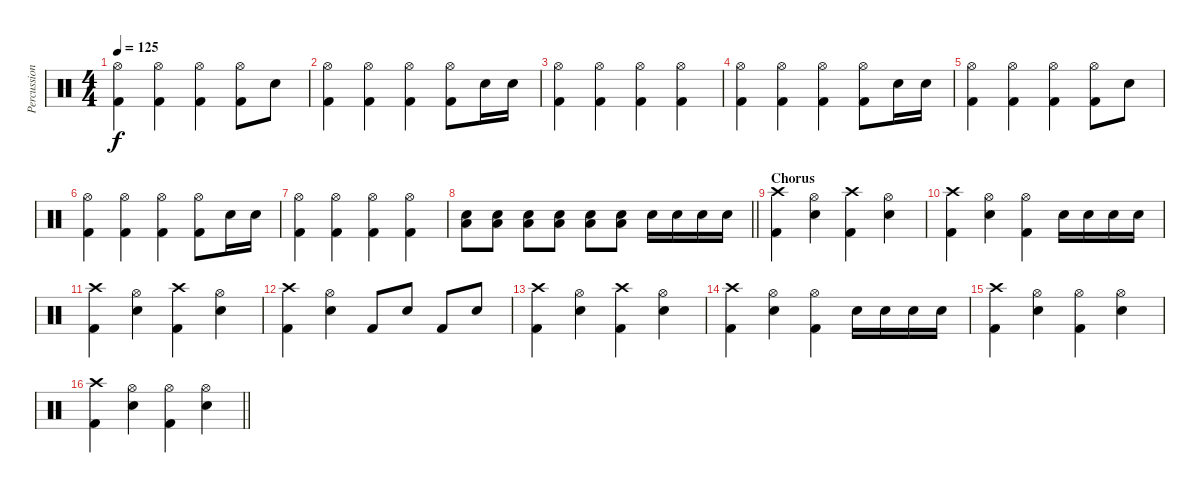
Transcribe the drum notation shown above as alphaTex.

\track ("Percussion" "Percussion") {instrument percussion}
\staff {score}
\articulation defaults
\ts (4 4)
\tempo 125
\clef neutral
\ks c
("Hi-Hat (open)" "Kick (hit) 2").4{dy f} ("Hi-Hat (open)" "Kick (hit) 2").4 ("Hi-Hat (open)" "Kick (hit) 2").4 ("Hi-Hat (open)" "Kick (hit) 2").8 "Snare (hit) 2".8 |
("Hi-Hat (open)" "Kick (hit) 2").4 ("Hi-Hat (open)" "Kick (hit) 2").4 ("Hi-Hat (open)" "Kick (hit) 2").4 ("Hi-Hat (open)" "Kick (hit) 2").8 "Snare (hit) 2".16 "Snare (hit) 2".16 |
("Hi-Hat (open)" "Kick (hit) 2").4 ("Hi-Hat (open)" "Kick (hit) 2").4 ("Hi-Hat (open)" "Kick (hit) 2").4 ("Hi-Hat (open)" "Kick (hit) 2").4 |
("Hi-Hat (open)" "Kick (hit) 2").4 ("Hi-Hat (open)" "Kick (hit) 2").4 ("Hi-Hat (open)" "Kick (hit) 2").4 ("Hi-Hat (open)" "Kick (hit) 2").8 "Snare (hit) 2".16 "Snare (hit) 2".16 |
("Hi-Hat (open)" "Kick (hit) 2").4 ("Hi-Hat (open)" "Kick (hit) 2").4 ("Hi-Hat (open)" "Kick (hit) 2").4 ("Hi-Hat (open)" "Kick (hit) 2").8 "Snare (hit) 2".8 |
("Hi-Hat (open)" "Kick (hit) 2").4 ("Hi-Hat (open)" "Kick (hit) 2").4 ("Hi-Hat (open)" "Kick (hit) 2").4 ("Hi-Hat (open)" "Kick (hit) 2").8 "Snare (hit) 2".16 "Snare (hit) 2".16 |
("Hi-Hat (open)" "Kick (hit) 2").4 ("Hi-Hat (open)" "Kick (hit) 2").4 ("Hi-Hat (open)" "Kick (hit) 2").4 ("Hi-Hat (open)" "Kick (hit) 2").4 |
\barLineRight lightlight
("Snare (hit) 2" "Low Floor Tom (hit)").8 ("Snare (hit) 2" "Low Floor Tom (hit)").8 ("Snare (hit) 2" "Low Floor Tom (hit)").8 ("Snare (hit) 2" "Low Floor Tom (hit)").8 ("Snare (hit) 2" "Low Floor Tom (hit)").8 ("Snare (hit) 2" "Low Floor Tom (hit)").8 "Snare (hit) 2".16 "Snare (hit) 2".16 "Snare (hit) 2".16 "Snare (hit) 2".16 |
\section ("" "Chorus")
("Crash high (hit)" "Kick (hit) 2").4 ("Hi-Hat (open)" "Snare (hit) 2").4 ("Crash high (hit)" "Kick (hit) 2").4 ("Hi-Hat (open)" "Snare (hit) 2").4 |
("Crash high (hit)" "Kick (hit) 2").4 ("Hi-Hat (open)" "Snare (hit) 2").4 ("Hi-Hat (open)" "Kick (hit) 2").4 "Snare (hit) 2".16 "Snare (hit) 2".16 "Snare (hit) 2".16 "Snare (hit) 2".16 |
("Crash high (hit)" "Kick (hit) 2").4 ("Hi-Hat (open)" "Snare (hit) 2").4 ("Crash high (hit)" "Kick (hit) 2").4 ("Hi-Hat (open)" "Snare (hit) 2").4 |
("Crash high (hit)" "Kick (hit) 2").4 ("Hi-Hat (open)" "Snare (hit) 2").4 "Kick (hit) 2".8 "Snare (hit) 2".8 "Kick (hit) 2".8 "Snare (hit) 2".8 |
("Crash high (hit)" "Kick (hit) 2").4 ("Hi-Hat (open)" "Snare (hit) 2").4 ("Crash high (hit)" "Kick (hit) 2").4 ("Hi-Hat (open)" "Snare (hit) 2").4 |
("Crash high (hit)" "Kick (hit) 2").4 ("Hi-Hat (open)" "Snare (hit) 2").4 ("Hi-Hat (open)" "Kick (hit) 2").4 "Snare (hit) 2".16 "Snare (hit) 2".16 "Snare (hit) 2".16 "Snare (hit) 2".16 |
("Crash high (hit)" "Kick (hit) 2").4 ("Hi-Hat (open)" "Snare (hit) 2").4 ("Hi-Hat (open)" "Kick (hit) 2").4 ("Hi-Hat (open)" "Snare (hit) 2").4 |
\barLineRight lightlight
("Crash high (hit)" "Kick (hit) 2").4 ("Hi-Hat (open)" "Snare (hit) 2").4 ("Hi-Hat (open)" "Kick (hit) 2").4 ("Hi-Hat (open)" "Snare (hit) 2").4
